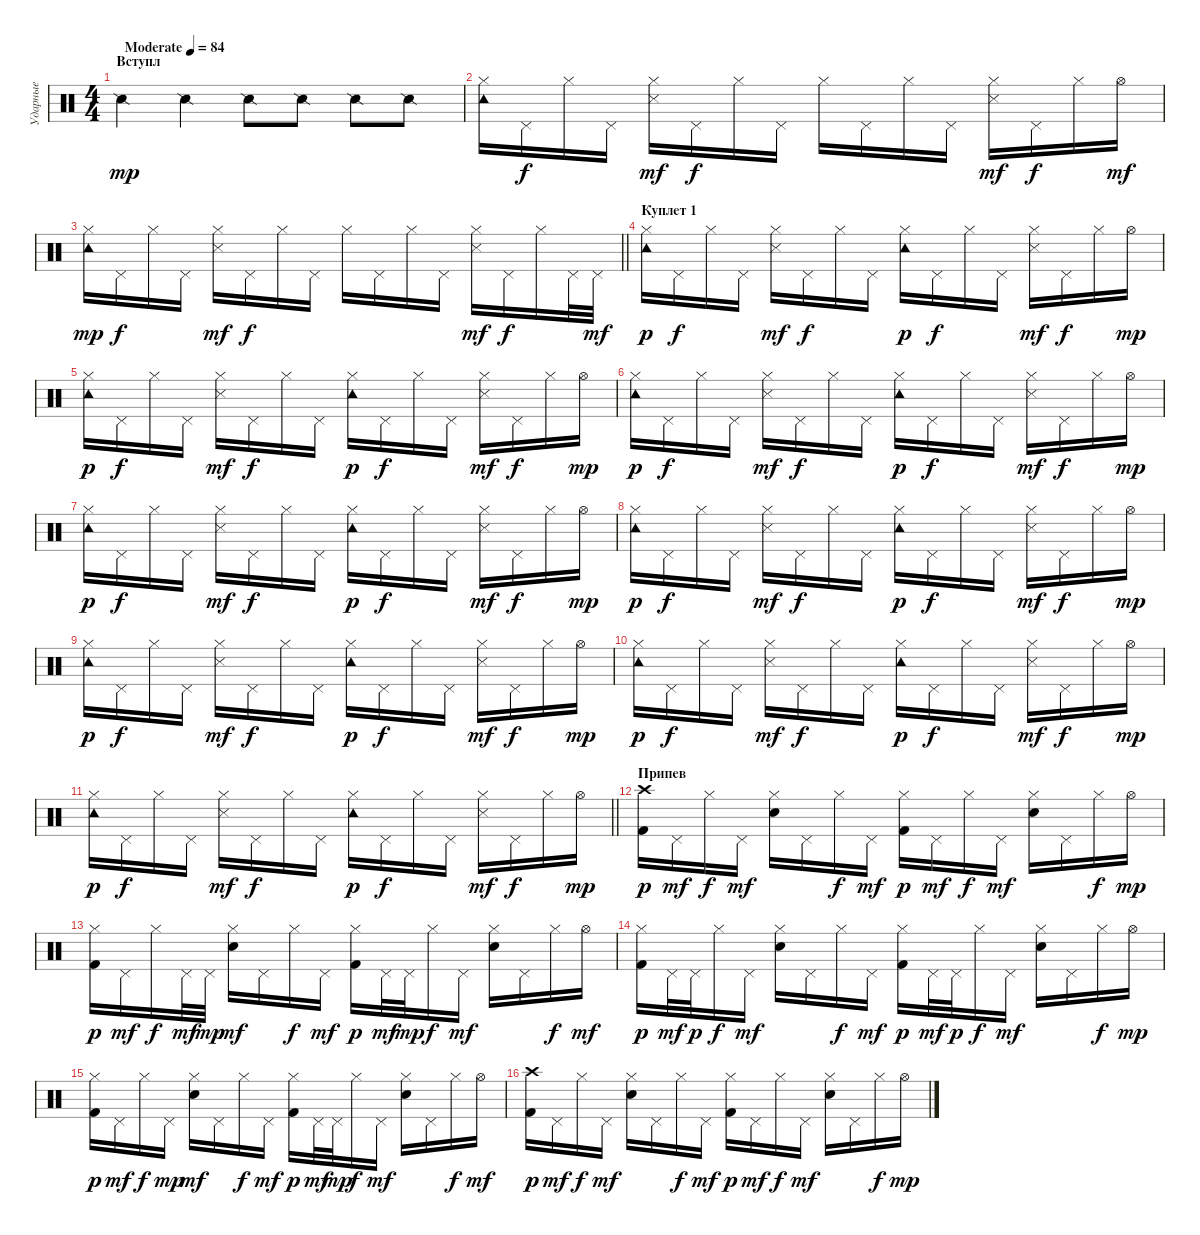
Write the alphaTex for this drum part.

\track ("Ударные" "Ударные") {instrument percussion}
\staff {score}
\articulation defaults
\ts (4 4)
\section ("" "Вступл")
\tempo (84 "Moderate")
\clef neutral
\ks c "Snare (side stick) 2".4{dy mp} "Snare (side stick) 2".4 "Snare (side stick) 2".8 "Snare (side stick) 2".8 "Snare (side stick) 2".8 "Snare (side stick) 2".8
|
("Hi-Hat (closed)" "Tambourine (hit)").16 "Pedal Hi-Hat (hit)".16{dy f} "Hi-Hat (closed)".16 "Pedal Hi-Hat (hit)".16 ("Hi-Hat (closed)" "Snare (side stick) 3").16{dy mf} "Pedal Hi-Hat (hit)".16{dy f} "Hi-Hat (closed)".16 "Pedal Hi-Hat (hit)".16 "Hi-Hat (closed)".16 "Pedal Hi-Hat (hit)".16 "Hi-Hat (closed)".16 "Pedal Hi-Hat (hit)".16 ("Hi-Hat (closed)" "Snare (side stick) 3").16{dy mf} "Pedal Hi-Hat (hit)".16{dy f} "Hi-Hat (closed)".16 "Hi-Hat (open)".16{dy mf} |
\barLineRight lightlight
("Hi-Hat (closed)" "Tambourine (hit)").16{dy mp} "Pedal Hi-Hat (hit)".16{dy f} "Hi-Hat (closed)".16 "Pedal Hi-Hat (hit)".16 ("Hi-Hat (closed)" "Snare (side stick) 3").16{dy mf} "Pedal Hi-Hat (hit)".16{dy f} "Hi-Hat (closed)".16 "Pedal Hi-Hat (hit)".16 "Hi-Hat (closed)".16 "Pedal Hi-Hat (hit)".16 "Hi-Hat (closed)".16 "Pedal Hi-Hat (hit)".16 ("Hi-Hat (closed)" "Snare (side stick) 3").16{dy mf} "Pedal Hi-Hat (hit)".16{dy f} "Hi-Hat (closed)".16 "Pedal Hi-Hat (hit)".32 "Pedal Hi-Hat (hit)".32{dy mf} |
\section ("" "Куплет 1")
("Hi-Hat (closed)" "Tambourine (hit)").16{dy p} "Pedal Hi-Hat (hit)".16{dy f} "Hi-Hat (closed)".16 "Pedal Hi-Hat (hit)".16 ("Hi-Hat (closed)" "Snare (side stick) 3").16{dy mf} "Pedal Hi-Hat (hit)".16{dy f} "Hi-Hat (closed)".16 "Pedal Hi-Hat (hit)".16 ("Hi-Hat (closed)" "Tambourine (hit)").16{dy p} "Pedal Hi-Hat (hit)".16{dy f} "Hi-Hat (closed)".16 "Pedal Hi-Hat (hit)".16 ("Hi-Hat (closed)" "Snare (side stick) 3").16{dy mf} "Pedal Hi-Hat (hit)".16{dy f} "Hi-Hat (closed)".16 "Hi-Hat (open)".16{dy mp} |
("Hi-Hat (closed)" "Tambourine (hit)").16{dy p} "Pedal Hi-Hat (hit)".16{dy f} "Hi-Hat (closed)".16 "Pedal Hi-Hat (hit)".16 ("Hi-Hat (closed)" "Snare (side stick) 3").16{dy mf} "Pedal Hi-Hat (hit)".16{dy f} "Hi-Hat (closed)".16 "Pedal Hi-Hat (hit)".16 ("Hi-Hat (closed)" "Tambourine (hit)").16{dy p} "Pedal Hi-Hat (hit)".16{dy f} "Hi-Hat (closed)".16 "Pedal Hi-Hat (hit)".16 ("Hi-Hat (closed)" "Snare (side stick) 3").16{dy mf} "Pedal Hi-Hat (hit)".16{dy f} "Hi-Hat (closed)".16 "Hi-Hat (open)".16{dy mp} |
("Hi-Hat (closed)" "Tambourine (hit)").16{dy p} "Pedal Hi-Hat (hit)".16{dy f} "Hi-Hat (closed)".16 "Pedal Hi-Hat (hit)".16 ("Hi-Hat (closed)" "Snare (side stick) 3").16{dy mf} "Pedal Hi-Hat (hit)".16{dy f} "Hi-Hat (closed)".16 "Pedal Hi-Hat (hit)".16 ("Hi-Hat (closed)" "Tambourine (hit)").16{dy p} "Pedal Hi-Hat (hit)".16{dy f} "Hi-Hat (closed)".16 "Pedal Hi-Hat (hit)".16 ("Hi-Hat (closed)" "Snare (side stick) 3").16{dy mf} "Pedal Hi-Hat (hit)".16{dy f} "Hi-Hat (closed)".16 "Hi-Hat (open)".16{dy mp} |
("Hi-Hat (closed)" "Tambourine (hit)").16{dy p} "Pedal Hi-Hat (hit)".16{dy f} "Hi-Hat (closed)".16 "Pedal Hi-Hat (hit)".16 ("Hi-Hat (closed)" "Snare (side stick) 3").16{dy mf} "Pedal Hi-Hat (hit)".16{dy f} "Hi-Hat (closed)".16 "Pedal Hi-Hat (hit)".16 ("Hi-Hat (closed)" "Tambourine (hit)").16{dy p} "Pedal Hi-Hat (hit)".16{dy f} "Hi-Hat (closed)".16 "Pedal Hi-Hat (hit)".16 ("Hi-Hat (closed)" "Snare (side stick) 3").16{dy mf} "Pedal Hi-Hat (hit)".16{dy f} "Hi-Hat (closed)".16 "Hi-Hat (open)".16{dy mp} |
("Hi-Hat (closed)" "Tambourine (hit)").16{dy p} "Pedal Hi-Hat (hit)".16{dy f} "Hi-Hat (closed)".16 "Pedal Hi-Hat (hit)".16 ("Hi-Hat (closed)" "Snare (side stick) 3").16{dy mf} "Pedal Hi-Hat (hit)".16{dy f} "Hi-Hat (closed)".16 "Pedal Hi-Hat (hit)".16 ("Hi-Hat (closed)" "Tambourine (hit)").16{dy p} "Pedal Hi-Hat (hit)".16{dy f} "Hi-Hat (closed)".16 "Pedal Hi-Hat (hit)".16 ("Hi-Hat (closed)" "Snare (side stick) 3").16{dy mf} "Pedal Hi-Hat (hit)".16{dy f} "Hi-Hat (closed)".16 "Hi-Hat (open)".16{dy mp} |
("Hi-Hat (closed)" "Tambourine (hit)").16{dy p} "Pedal Hi-Hat (hit)".16{dy f} "Hi-Hat (closed)".16 "Pedal Hi-Hat (hit)".16 ("Hi-Hat (closed)" "Snare (side stick) 3").16{dy mf} "Pedal Hi-Hat (hit)".16{dy f} "Hi-Hat (closed)".16 "Pedal Hi-Hat (hit)".16 ("Hi-Hat (closed)" "Tambourine (hit)").16{dy p} "Pedal Hi-Hat (hit)".16{dy f} "Hi-Hat (closed)".16 "Pedal Hi-Hat (hit)".16 ("Hi-Hat (closed)" "Snare (side stick) 3").16{dy mf} "Pedal Hi-Hat (hit)".16{dy f} "Hi-Hat (closed)".16 "Hi-Hat (open)".16{dy mp} |
("Hi-Hat (closed)" "Tambourine (hit)").16{dy p} "Pedal Hi-Hat (hit)".16{dy f} "Hi-Hat (closed)".16 "Pedal Hi-Hat (hit)".16 ("Hi-Hat (closed)" "Snare (side stick) 3").16{dy mf} "Pedal Hi-Hat (hit)".16{dy f} "Hi-Hat (closed)".16 "Pedal Hi-Hat (hit)".16 ("Hi-Hat (closed)" "Tambourine (hit)").16{dy p} "Pedal Hi-Hat (hit)".16{dy f} "Hi-Hat (closed)".16 "Pedal Hi-Hat (hit)".16 ("Hi-Hat (closed)" "Snare (side stick) 3").16{dy mf} "Pedal Hi-Hat (hit)".16{dy f} "Hi-Hat (closed)".16 "Hi-Hat (open)".16{dy mp} |
\barLineRight lightlight
("Hi-Hat (closed)" "Tambourine (hit)").16{dy p} "Pedal Hi-Hat (hit)".16{dy f} "Hi-Hat (closed)".16 "Pedal Hi-Hat (hit)".16 ("Hi-Hat (closed)" "Snare (side stick) 3").16{dy mf} "Pedal Hi-Hat (hit)".16{dy f} "Hi-Hat (closed)".16 "Pedal Hi-Hat (hit)".16 ("Hi-Hat (closed)" "Tambourine (hit)").16{dy p} "Pedal Hi-Hat (hit)".16{dy f} "Hi-Hat (closed)".16 "Pedal Hi-Hat (hit)".16 ("Hi-Hat (closed)" "Snare (side stick) 3").16{dy mf} "Pedal Hi-Hat (hit)".16{dy f} "Hi-Hat (closed)".16 "Hi-Hat (open)".16{dy mp} |
\section ("" "Припев ")
("Crash high (hit)" "Kick (hit) 2").16{dy p} "Pedal Hi-Hat (hit)".16{dy mf} "Hi-Hat (closed)".16{dy f} "Pedal Hi-Hat (hit)".16{dy mf} ("Hi-Hat (closed)" "Electric Snare (hit)").16 "Pedal Hi-Hat (hit)".16 "Hi-Hat (closed)".16{dy f} "Pedal Hi-Hat (hit)".16{dy mf} ("Hi-Hat (closed)" "Kick (hit) 2").16{dy p} "Pedal Hi-Hat (hit)".16{dy mf} "Hi-Hat (closed)".16{dy f} "Pedal Hi-Hat (hit)".16{dy mf} ("Hi-Hat (closed)" "Electric Snare (hit)").16 "Pedal Hi-Hat (hit)".16 "Hi-Hat (closed)".16{dy f} "Hi-Hat (open)".16{dy mp} |
("Hi-Hat (closed)" "Kick (hit) 2").16{dy p} "Pedal Hi-Hat (hit)".16{dy mf} "Hi-Hat (closed)".16{dy f} "Pedal Hi-Hat (hit)".32{dy mf} "Pedal Hi-Hat (hit)".32{dy mp} ("Hi-Hat (closed)" "Electric Snare (hit)").16{dy mf} "Pedal Hi-Hat (hit)".16 "Hi-Hat (closed)".16{dy f} "Pedal Hi-Hat (hit)".16{dy mf} ("Hi-Hat (closed)" "Kick (hit) 2").16{dy p} "Pedal Hi-Hat (hit)".32{dy mf} "Pedal Hi-Hat (hit)".32{dy mp} "Hi-Hat (closed)".16{dy f} "Pedal Hi-Hat (hit)".16{dy mf} ("Hi-Hat (closed)" "Electric Snare (hit)").16 "Pedal Hi-Hat (hit)".16 "Hi-Hat (closed)".16{dy f} "Hi-Hat (open)".16{dy mf} |
("Hi-Hat (closed)" "Kick (hit) 2").16{dy p} "Pedal Hi-Hat (hit)".32{dy mf} "Pedal Hi-Hat (hit)".32{dy p} "Hi-Hat (closed)".16{dy f} "Pedal Hi-Hat (hit)".16{dy mf} ("Hi-Hat (closed)" "Electric Snare (hit)").16 "Pedal Hi-Hat (hit)".16 "Hi-Hat (closed)".16{dy f} "Pedal Hi-Hat (hit)".16{dy mf} ("Hi-Hat (closed)" "Kick (hit) 2").16{dy p} "Pedal Hi-Hat (hit)".32{dy mf} "Pedal Hi-Hat (hit)".32{dy p} "Hi-Hat (closed)".16{dy f} "Pedal Hi-Hat (hit)".16{dy mf} ("Hi-Hat (closed)" "Electric Snare (hit)").16 "Pedal Hi-Hat (hit)".16 "Hi-Hat (closed)".16{dy f} "Hi-Hat (open)".16{dy mp} |
("Hi-Hat (closed)" "Kick (hit) 2").16{dy p} "Pedal Hi-Hat (hit)".16{dy mf} "Hi-Hat (closed)".16{dy f} "Pedal Hi-Hat (hit)".16{dy mp} ("Hi-Hat (closed)" "Electric Snare (hit)").16{dy mf} "Pedal Hi-Hat (hit)".16 "Hi-Hat (closed)".16{dy f} "Pedal Hi-Hat (hit)".16{dy mf} ("Hi-Hat (closed)" "Kick (hit) 2").16{dy p} "Pedal Hi-Hat (hit)".32{dy mf} "Pedal Hi-Hat (hit)".32{dy mp} "Hi-Hat (closed)".16{dy f} "Pedal Hi-Hat (hit)".16{dy mf} ("Hi-Hat (closed)" "Electric Snare (hit)").16 "Pedal Hi-Hat (hit)".16 "Hi-Hat (closed)".16{dy f} "Hi-Hat (open)".16{dy mf} |
("Crash high (hit)" "Kick (hit) 2").16{dy p} "Pedal Hi-Hat (hit)".16{dy mf} "Hi-Hat (closed)".16{dy f} "Pedal Hi-Hat (hit)".16{dy mf} ("Hi-Hat (closed)" "Electric Snare (hit)").16 "Pedal Hi-Hat (hit)".16 "Hi-Hat (closed)".16{dy f} "Pedal Hi-Hat (hit)".16{dy mf} ("Hi-Hat (closed)" "Kick (hit) 2").16{dy p} "Pedal Hi-Hat (hit)".16{dy mf} "Hi-Hat (closed)".16{dy f} "Pedal Hi-Hat (hit)".16{dy mf} ("Hi-Hat (closed)" "Electric Snare (hit)").16 "Pedal Hi-Hat (hit)".16 "Hi-Hat (closed)".16{dy f} "Hi-Hat (open)".16{dy mp}
